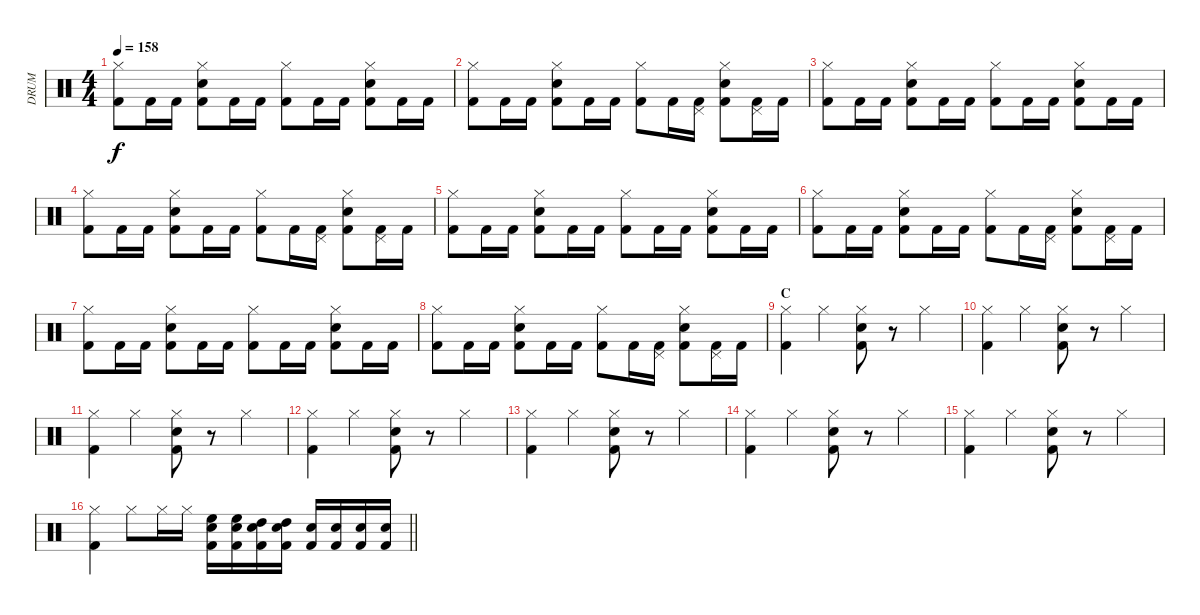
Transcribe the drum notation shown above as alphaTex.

\track ("DRUM" "DRUM") {instrument percussion}
\staff {score}
\articulation defaults
\ts (4 4)
\tempo 158
\clef neutral
\ks c
("Hi-Hat (closed)" "Kick (hit) 2").8{dy f} "Kick (hit) 2".16 "Kick (hit) 2".16 ("Hi-Hat (closed)" "Snare (hit) 2" "Kick (hit) 2").8 "Kick (hit) 2".16 "Kick (hit) 2".16 ("Hi-Hat (closed)" "Kick (hit) 2").8 "Kick (hit) 2".16 "Kick (hit) 2".16 ("Hi-Hat (closed)" "Snare (hit) 2" "Kick (hit) 2").8 "Kick (hit) 2".16 "Kick (hit) 2".16 |
("Hi-Hat (closed)" "Kick (hit) 2").8 "Kick (hit) 2".16 "Kick (hit) 2".16 ("Hi-Hat (closed)" "Snare (hit) 2" "Kick (hit) 2").8 "Kick (hit) 2".16 "Kick (hit) 2".16 ("Hi-Hat (closed)" "Kick (hit) 2").8 "Kick (hit) 2".16 ("Pedal Hi-Hat (hit)" "Kick (hit) 2").16 ("Hi-Hat (closed)" "Snare (hit) 2" "Kick (hit) 2").8 ("Pedal Hi-Hat (hit)" "Kick (hit) 2").16 "Kick (hit) 2".16 |
("Hi-Hat (closed)" "Kick (hit) 2").8 "Kick (hit) 2".16 "Kick (hit) 2".16 ("Hi-Hat (closed)" "Snare (hit) 2" "Kick (hit) 2").8 "Kick (hit) 2".16 "Kick (hit) 2".16 ("Hi-Hat (closed)" "Kick (hit) 2").8 "Kick (hit) 2".16 "Kick (hit) 2".16 ("Hi-Hat (closed)" "Snare (hit) 2" "Kick (hit) 2").8 "Kick (hit) 2".16 "Kick (hit) 2".16 |
("Hi-Hat (closed)" "Kick (hit) 2").8 "Kick (hit) 2".16 "Kick (hit) 2".16 ("Hi-Hat (closed)" "Snare (hit) 2" "Kick (hit) 2").8 "Kick (hit) 2".16 "Kick (hit) 2".16 ("Hi-Hat (closed)" "Kick (hit) 2").8 "Kick (hit) 2".16 ("Pedal Hi-Hat (hit)" "Kick (hit) 2").16 ("Hi-Hat (closed)" "Snare (hit) 2" "Kick (hit) 2").8 ("Pedal Hi-Hat (hit)" "Kick (hit) 2").16 "Kick (hit) 2".16 |
("Hi-Hat (closed)" "Kick (hit) 2").8 "Kick (hit) 2".16 "Kick (hit) 2".16 ("Hi-Hat (closed)" "Snare (hit) 2" "Kick (hit) 2").8 "Kick (hit) 2".16 "Kick (hit) 2".16 ("Hi-Hat (closed)" "Kick (hit) 2").8 "Kick (hit) 2".16 "Kick (hit) 2".16 ("Hi-Hat (closed)" "Snare (hit) 2" "Kick (hit) 2").8 "Kick (hit) 2".16 "Kick (hit) 2".16 |
("Hi-Hat (closed)" "Kick (hit) 2").8 "Kick (hit) 2".16 "Kick (hit) 2".16 ("Hi-Hat (closed)" "Snare (hit) 2" "Kick (hit) 2").8 "Kick (hit) 2".16 "Kick (hit) 2".16 ("Hi-Hat (closed)" "Kick (hit) 2").8 "Kick (hit) 2".16 ("Pedal Hi-Hat (hit)" "Kick (hit) 2").16 ("Hi-Hat (closed)" "Snare (hit) 2" "Kick (hit) 2").8 ("Pedal Hi-Hat (hit)" "Kick (hit) 2").16 "Kick (hit) 2".16 |
("Hi-Hat (closed)" "Kick (hit) 2").8 "Kick (hit) 2".16 "Kick (hit) 2".16 ("Hi-Hat (closed)" "Snare (hit) 2" "Kick (hit) 2").8 "Kick (hit) 2".16 "Kick (hit) 2".16 ("Hi-Hat (closed)" "Kick (hit) 2").8 "Kick (hit) 2".16 "Kick (hit) 2".16 ("Hi-Hat (closed)" "Snare (hit) 2" "Kick (hit) 2").8 "Kick (hit) 2".16 "Kick (hit) 2".16 |
("Hi-Hat (closed)" "Kick (hit) 2").8 "Kick (hit) 2".16 "Kick (hit) 2".16 ("Hi-Hat (closed)" "Snare (hit) 2" "Kick (hit) 2").8 "Kick (hit) 2".16 "Kick (hit) 2".16 ("Hi-Hat (closed)" "Kick (hit) 2").8 "Kick (hit) 2".16 ("Pedal Hi-Hat (hit)" "Kick (hit) 2").16 ("Hi-Hat (closed)" "Snare (hit) 2" "Kick (hit) 2").8 ("Pedal Hi-Hat (hit)" "Kick (hit) 2").16 "Kick (hit) 2".16 |
\section ("" "C")
("Hi-Hat (closed)" "Kick (hit) 2").4 "Hi-Hat (closed)".4 ("Hi-Hat (closed)" "Snare (hit) 2" "Kick (hit) 2").8 r.8 "Hi-Hat (closed)".4 |
("Hi-Hat (closed)" "Kick (hit) 2").4 "Hi-Hat (closed)".4 ("Hi-Hat (closed)" "Snare (hit) 2" "Kick (hit) 2").8 r.8 "Hi-Hat (closed)".4 |
("Hi-Hat (closed)" "Kick (hit) 2").4 "Hi-Hat (closed)".4 ("Hi-Hat (closed)" "Snare (hit) 2" "Kick (hit) 2").8 r.8 "Hi-Hat (closed)".4 |
("Hi-Hat (closed)" "Kick (hit) 2").4 "Hi-Hat (closed)".4 ("Hi-Hat (closed)" "Snare (hit) 2" "Kick (hit) 2").8 r.8 "Hi-Hat (closed)".4 |
("Hi-Hat (closed)" "Kick (hit) 2").4 "Hi-Hat (closed)".4 ("Hi-Hat (closed)" "Snare (hit) 2" "Kick (hit) 2").8 r.8 "Hi-Hat (closed)".4 |
("Hi-Hat (closed)" "Kick (hit) 2").4 "Hi-Hat (closed)".4 ("Hi-Hat (closed)" "Snare (hit) 2" "Kick (hit) 2").8 r.8 "Hi-Hat (closed)".4 |
("Hi-Hat (closed)" "Kick (hit) 2").4 "Hi-Hat (closed)".4 ("Hi-Hat (closed)" "Snare (hit) 2" "Kick (hit) 2").8 r.8 "Hi-Hat (closed)".4 |
\barLineRight lightlight
("Hi-Hat (closed)" "Kick (hit) 2").4 "Hi-Hat (closed)".8 "Hi-Hat (closed)".16 "Hi-Hat (closed)".16 ("High Floor Tom (hit)" "Snare (hit) 2" "Kick (hit) 2").16 ("High Floor Tom (hit)" "Snare (hit) 2" "Kick (hit) 2").16 ("High Tom (hit)" "Snare (hit) 2" "Kick (hit) 2").16 ("High Tom (hit)" "Snare (hit) 2" "Kick (hit) 2").16 ("Snare (hit) 2" "Kick (hit) 2").16 ("Snare (hit) 2" "Kick (hit) 2").16 ("Snare (hit) 2" "Kick (hit) 2").16 ("Snare (hit) 2" "Kick (hit) 2").16
